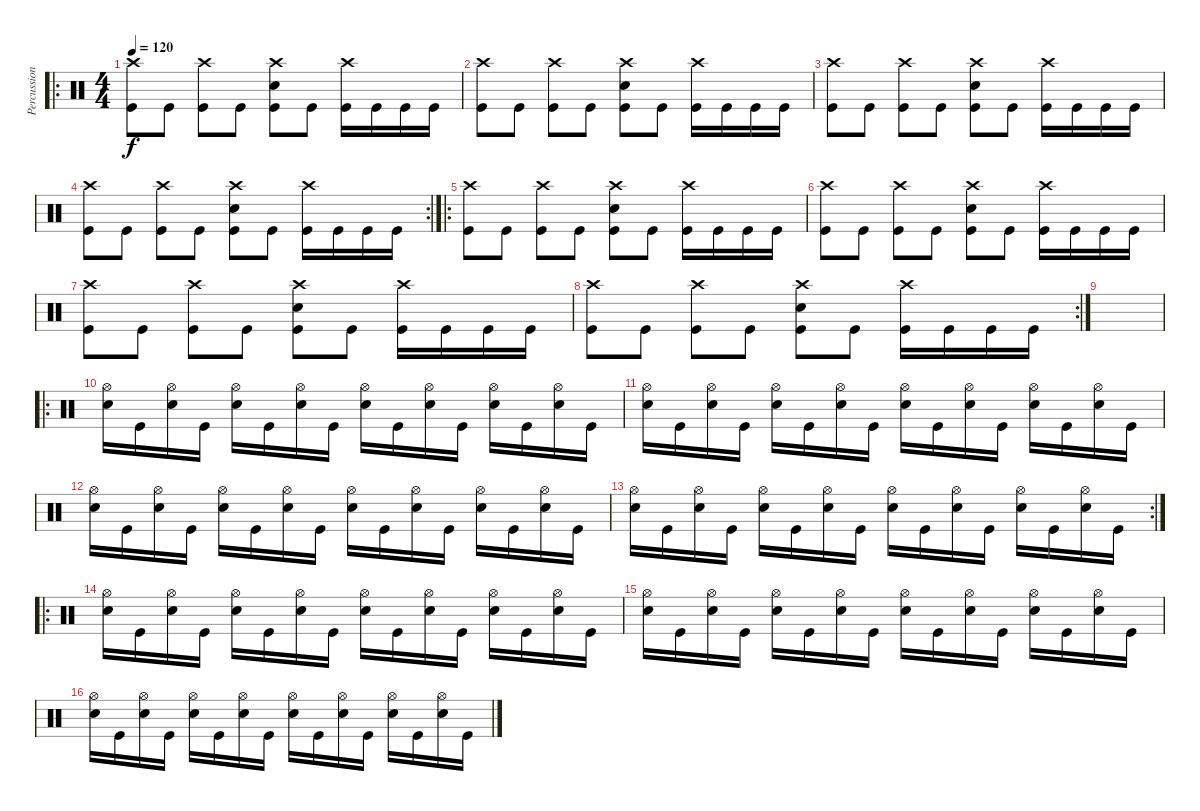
\track ("Percussion" "Percussion") {instrument percussion}
\staff {score}
\articulation defaults
\ro
\ts (4 4)
\tempo 120
\clef neutral
\ks c
("Crash high (hit)" "Kick (hit)").8{dy f} "Kick (hit)".8 ("Crash high (hit)" "Kick (hit)").8 "Kick (hit)".8 ("Crash high (hit)" "Snare (hit) 2" "Kick (hit)").8 "Kick (hit)".8 ("Crash high (hit)" "Kick (hit)").16 "Kick (hit)".16 "Kick (hit)".16 "Kick (hit)".16 |
("Crash high (hit)" "Kick (hit)").8 "Kick (hit)".8 ("Crash high (hit)" "Kick (hit)").8 "Kick (hit)".8 ("Crash high (hit)" "Snare (hit) 2" "Kick (hit)").8 "Kick (hit)".8 ("Crash high (hit)" "Kick (hit)").16 "Kick (hit)".16 "Kick (hit)".16 "Kick (hit)".16 |
("Crash high (hit)" "Kick (hit)").8 "Kick (hit)".8 ("Crash high (hit)" "Kick (hit)").8 "Kick (hit)".8 ("Crash high (hit)" "Snare (hit) 2" "Kick (hit)").8 "Kick (hit)".8 ("Crash high (hit)" "Kick (hit)").16 "Kick (hit)".16 "Kick (hit)".16 "Kick (hit)".16 |
\rc 2
("Crash high (hit)" "Kick (hit)").8 "Kick (hit)".8 ("Crash high (hit)" "Kick (hit)").8 "Kick (hit)".8 ("Crash high (hit)" "Snare (hit) 2" "Kick (hit)").8 "Kick (hit)".8 ("Crash high (hit)" "Kick (hit)").16 "Kick (hit)".16 "Kick (hit)".16 "Kick (hit)".16 |
\ro
("Crash high (hit)" "Kick (hit)").8 "Kick (hit)".8 ("Crash high (hit)" "Kick (hit)").8 "Kick (hit)".8 ("Crash high (hit)" "Snare (hit) 2" "Kick (hit)").8 "Kick (hit)".8 ("Crash high (hit)" "Kick (hit)").16 "Kick (hit)".16 "Kick (hit)".16 "Kick (hit)".16 |
("Crash high (hit)" "Kick (hit)").8 "Kick (hit)".8 ("Crash high (hit)" "Kick (hit)").8 "Kick (hit)".8 ("Crash high (hit)" "Snare (hit) 2" "Kick (hit)").8 "Kick (hit)".8 ("Crash high (hit)" "Kick (hit)").16 "Kick (hit)".16 "Kick (hit)".16 "Kick (hit)".16 |
("Crash high (hit)" "Kick (hit)").8 "Kick (hit)".8 ("Crash high (hit)" "Kick (hit)").8 "Kick (hit)".8 ("Crash high (hit)" "Snare (hit) 2" "Kick (hit)").8 "Kick (hit)".8 ("Crash high (hit)" "Kick (hit)").16 "Kick (hit)".16 "Kick (hit)".16 "Kick (hit)".16 |
\rc 2
("Crash high (hit)" "Kick (hit)").8 "Kick (hit)".8 ("Crash high (hit)" "Kick (hit)").8 "Kick (hit)".8 ("Crash high (hit)" "Snare (hit) 2" "Kick (hit)").8 "Kick (hit)".8 ("Crash high (hit)" "Kick (hit)").16 "Kick (hit)".16 "Kick (hit)".16 "Kick (hit)".16 |
|
\ro
("Hi-Hat (open)" "Snare (hit) 2").16 "Kick (hit)".16 ("Hi-Hat (open)" "Snare (hit) 2").16 "Kick (hit)".16 ("Hi-Hat (open)" "Snare (hit) 2").16 "Kick (hit)".16 ("Hi-Hat (open)" "Snare (hit) 2").16 "Kick (hit)".16 ("Hi-Hat (open)" "Snare (hit) 2").16 "Kick (hit)".16 ("Hi-Hat (open)" "Snare (hit) 2").16 "Kick (hit)".16 ("Hi-Hat (open)" "Snare (hit) 2").16 "Kick (hit)".16 ("Hi-Hat (open)" "Snare (hit) 2").16 "Kick (hit)".16 |
("Hi-Hat (open)" "Snare (hit) 2").16 "Kick (hit)".16 ("Hi-Hat (open)" "Snare (hit) 2").16 "Kick (hit)".16 ("Hi-Hat (open)" "Snare (hit) 2").16 "Kick (hit)".16 ("Hi-Hat (open)" "Snare (hit) 2").16 "Kick (hit)".16 ("Hi-Hat (open)" "Snare (hit) 2").16 "Kick (hit)".16 ("Hi-Hat (open)" "Snare (hit) 2").16 "Kick (hit)".16 ("Hi-Hat (open)" "Snare (hit) 2").16 "Kick (hit)".16 ("Hi-Hat (open)" "Snare (hit) 2").16 "Kick (hit)".16 |
("Hi-Hat (open)" "Snare (hit) 2").16 "Kick (hit)".16 ("Hi-Hat (open)" "Snare (hit) 2").16 "Kick (hit)".16 ("Hi-Hat (open)" "Snare (hit) 2").16 "Kick (hit)".16 ("Hi-Hat (open)" "Snare (hit) 2").16 "Kick (hit)".16 ("Hi-Hat (open)" "Snare (hit) 2").16 "Kick (hit)".16 ("Hi-Hat (open)" "Snare (hit) 2").16 "Kick (hit)".16 ("Hi-Hat (open)" "Snare (hit) 2").16 "Kick (hit)".16 ("Hi-Hat (open)" "Snare (hit) 2").16 "Kick (hit)".16 |
\rc 2
("Hi-Hat (open)" "Snare (hit) 2").16 "Kick (hit)".16 ("Hi-Hat (open)" "Snare (hit) 2").16 "Kick (hit)".16 ("Hi-Hat (open)" "Snare (hit) 2").16 "Kick (hit)".16 ("Hi-Hat (open)" "Snare (hit) 2").16 "Kick (hit)".16 ("Hi-Hat (open)" "Snare (hit) 2").16 "Kick (hit)".16 ("Hi-Hat (open)" "Snare (hit) 2").16 "Kick (hit)".16 ("Hi-Hat (open)" "Snare (hit) 2").16 "Kick (hit)".16 ("Hi-Hat (open)" "Snare (hit) 2").16 "Kick (hit)".16 |
\ro
("Hi-Hat (open)" "Snare (hit) 2").16 "Kick (hit)".16 ("Hi-Hat (open)" "Snare (hit) 2").16 "Kick (hit)".16 ("Hi-Hat (open)" "Snare (hit) 2").16 "Kick (hit)".16 ("Hi-Hat (open)" "Snare (hit) 2").16 "Kick (hit)".16 ("Hi-Hat (open)" "Snare (hit) 2").16 "Kick (hit)".16 ("Hi-Hat (open)" "Snare (hit) 2").16 "Kick (hit)".16 ("Hi-Hat (open)" "Snare (hit) 2").16 "Kick (hit)".16 ("Hi-Hat (open)" "Snare (hit) 2").16 "Kick (hit)".16 |
("Hi-Hat (open)" "Snare (hit) 2").16 "Kick (hit)".16 ("Hi-Hat (open)" "Snare (hit) 2").16 "Kick (hit)".16 ("Hi-Hat (open)" "Snare (hit) 2").16 "Kick (hit)".16 ("Hi-Hat (open)" "Snare (hit) 2").16 "Kick (hit)".16 ("Hi-Hat (open)" "Snare (hit) 2").16 "Kick (hit)".16 ("Hi-Hat (open)" "Snare (hit) 2").16 "Kick (hit)".16 ("Hi-Hat (open)" "Snare (hit) 2").16 "Kick (hit)".16 ("Hi-Hat (open)" "Snare (hit) 2").16 "Kick (hit)".16 |
("Hi-Hat (open)" "Snare (hit) 2").16 "Kick (hit)".16 ("Hi-Hat (open)" "Snare (hit) 2").16 "Kick (hit)".16 ("Hi-Hat (open)" "Snare (hit) 2").16 "Kick (hit)".16 ("Hi-Hat (open)" "Snare (hit) 2").16 "Kick (hit)".16 ("Hi-Hat (open)" "Snare (hit) 2").16 "Kick (hit)".16 ("Hi-Hat (open)" "Snare (hit) 2").16 "Kick (hit)".16 ("Hi-Hat (open)" "Snare (hit) 2").16 "Kick (hit)".16 ("Hi-Hat (open)" "Snare (hit) 2").16 "Kick (hit)".16
